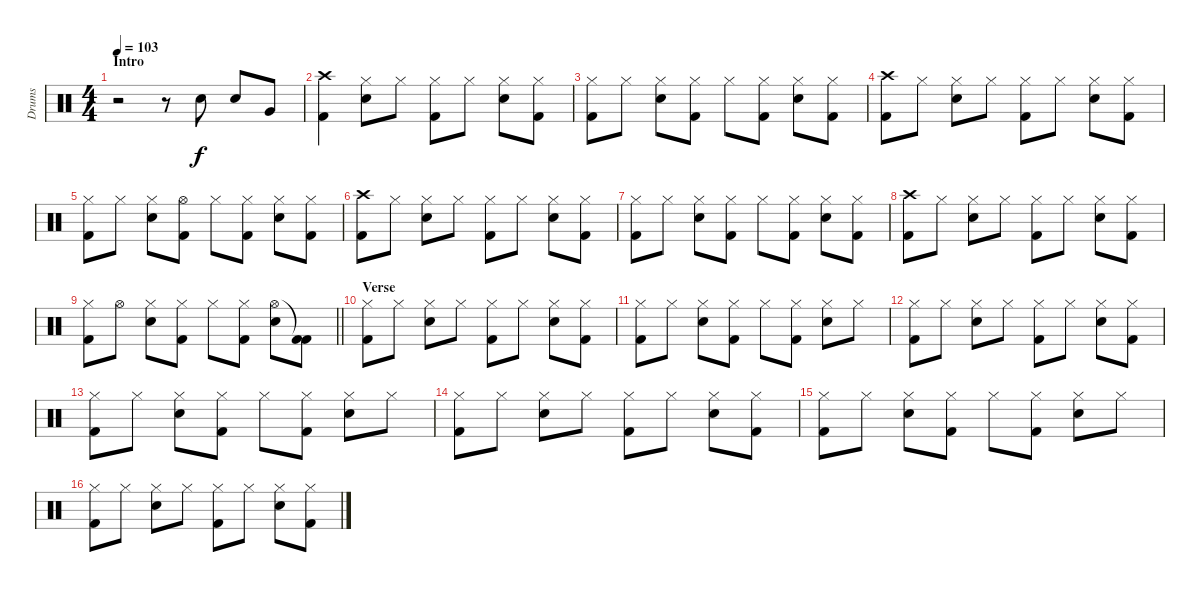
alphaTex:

\track ("Drums" "Drums") {instrument percussion}
\staff {score}
\articulation defaults
\ts (4 4)
\section ("" "Intro")
\tempo 103
\clef neutral
\ks c
r.2{dy f} r.8 "Snare (hit) 2".8 "Snare (hit) 2".8 "Very Low Tom (hit)".8 |
("Crash high (hit)" "Kick (hit) 2").4 ("Hi-Hat (closed)" "Snare (hit) 2").8 "Hi-Hat (closed)".8 ("Hi-Hat (closed)" "Kick (hit) 2").8 "Hi-Hat (closed)".8 ("Hi-Hat (closed)" "Snare (hit) 2").8 ("Hi-Hat (closed)" "Kick (hit) 2").8 |
("Hi-Hat (closed)" "Kick (hit) 2").8 "Hi-Hat (closed)".8 ("Hi-Hat (closed)" "Snare (hit) 2").8 ("Hi-Hat (closed)" "Kick (hit) 2").8 "Hi-Hat (closed)".8 ("Hi-Hat (closed)" "Kick (hit) 2").8 ("Hi-Hat (closed)" "Snare (hit) 2").8 ("Hi-Hat (closed)" "Kick (hit) 2").8 |
("Crash high (hit)" "Kick (hit) 2").8 "Hi-Hat (closed)".8 ("Hi-Hat (closed)" "Snare (hit) 2").8 "Hi-Hat (closed)".8 ("Hi-Hat (closed)" "Kick (hit) 2").8 "Hi-Hat (closed)".8 ("Hi-Hat (closed)" "Snare (hit) 2").8 ("Hi-Hat (closed)" "Kick (hit) 2").8 |
("Hi-Hat (closed)" "Kick (hit) 2").8 "Hi-Hat (closed)".8 ("Hi-Hat (closed)" "Snare (hit) 2").8 ("Hi-Hat (open)" "Kick (hit) 2").8 "Hi-Hat (closed)".8 ("Hi-Hat (closed)" "Kick (hit) 2").8 ("Hi-Hat (closed)" "Snare (hit) 2").8 ("Hi-Hat (closed)" "Kick (hit) 2").8 |
("Crash high (hit)" "Kick (hit) 2").8 "Hi-Hat (closed)".8 ("Hi-Hat (closed)" "Snare (hit) 2").8 "Hi-Hat (closed)".8 ("Hi-Hat (closed)" "Kick (hit) 2").8 "Hi-Hat (closed)".8 ("Hi-Hat (closed)" "Snare (hit) 2").8 ("Hi-Hat (closed)" "Kick (hit) 2").8 |
("Hi-Hat (closed)" "Kick (hit) 2").8 "Hi-Hat (closed)".8 ("Hi-Hat (closed)" "Snare (hit) 2").8 ("Hi-Hat (closed)" "Kick (hit) 2").8 "Hi-Hat (closed)".8 ("Hi-Hat (closed)" "Kick (hit) 2").8 ("Hi-Hat (closed)" "Snare (hit) 2").8 ("Hi-Hat (closed)" "Kick (hit) 2").8 |
("Crash high (hit)" "Kick (hit) 2").8 "Hi-Hat (closed)".8 ("Hi-Hat (closed)" "Snare (hit) 2").8 "Hi-Hat (closed)".8 ("Hi-Hat (closed)" "Kick (hit) 2").8 "Hi-Hat (closed)".8 ("Hi-Hat (closed)" "Snare (hit) 2").8 ("Hi-Hat (closed)" "Kick (hit) 2").8 |
\barLineRight lightlight
("Hi-Hat (closed)" "Kick (hit) 2").8 "Hi-Hat (open)".8 ("Hi-Hat (closed)" "Snare (hit) 2").8 ("Hi-Hat (closed)" "Kick (hit) 2").8 "Hi-Hat (closed)".8 ("Hi-Hat (closed)" "Kick (hit) 2").8 ("Hi-Hat (open)" "Snare (hit) 2").8 ("Kick (hit) 2"{t} "Kick (hit) 2").8 |
\section ("" "Verse")
("Hi-Hat (closed)" "Kick (hit) 2").8 "Hi-Hat (closed)".8 ("Hi-Hat (closed)" "Snare (hit) 2").8 "Hi-Hat (closed)".8 ("Hi-Hat (closed)" "Kick (hit) 2").8 "Hi-Hat (closed)".8 ("Hi-Hat (closed)" "Snare (hit) 2").8 ("Hi-Hat (closed)" "Kick (hit) 2").8 |
("Hi-Hat (closed)" "Kick (hit) 2").8 "Hi-Hat (closed)".8 ("Hi-Hat (closed)" "Snare (hit) 2").8 ("Hi-Hat (closed)" "Kick (hit) 2").8 "Hi-Hat (closed)".8 ("Hi-Hat (closed)" "Kick (hit) 2").8 ("Hi-Hat (closed)" "Snare (hit) 2").8 "Hi-Hat (closed)".8 |
("Hi-Hat (closed)" "Kick (hit) 2").8 "Hi-Hat (closed)".8 ("Hi-Hat (closed)" "Snare (hit) 2").8 "Hi-Hat (closed)".8 ("Hi-Hat (closed)" "Kick (hit) 2").8 "Hi-Hat (closed)".8 ("Hi-Hat (closed)" "Snare (hit) 2").8 ("Hi-Hat (closed)" "Kick (hit) 2").8 |
("Hi-Hat (closed)" "Kick (hit) 2").8 "Hi-Hat (closed)".8 ("Hi-Hat (closed)" "Snare (hit) 2").8 ("Hi-Hat (closed)" "Kick (hit) 2").8 "Hi-Hat (closed)".8 ("Hi-Hat (closed)" "Kick (hit) 2").8 ("Hi-Hat (closed)" "Snare (hit) 2").8 "Hi-Hat (closed)".8 |
("Hi-Hat (closed)" "Kick (hit) 2").8 "Hi-Hat (closed)".8 ("Hi-Hat (closed)" "Snare (hit) 2").8 "Hi-Hat (closed)".8 ("Hi-Hat (closed)" "Kick (hit) 2").8 "Hi-Hat (closed)".8 ("Hi-Hat (closed)" "Snare (hit) 2").8 ("Hi-Hat (closed)" "Kick (hit) 2").8 |
("Hi-Hat (closed)" "Kick (hit) 2").8 "Hi-Hat (closed)".8 ("Hi-Hat (closed)" "Snare (hit) 2").8 ("Hi-Hat (closed)" "Kick (hit) 2").8 "Hi-Hat (closed)".8 ("Hi-Hat (closed)" "Kick (hit) 2").8 ("Hi-Hat (closed)" "Snare (hit) 2").8 "Hi-Hat (closed)".8 |
("Hi-Hat (closed)" "Kick (hit) 2").8 "Hi-Hat (closed)".8 ("Hi-Hat (closed)" "Snare (hit) 2").8 "Hi-Hat (closed)".8 ("Hi-Hat (closed)" "Kick (hit) 2").8 "Hi-Hat (closed)".8 ("Hi-Hat (closed)" "Snare (hit) 2").8 ("Hi-Hat (closed)" "Kick (hit) 2").8
